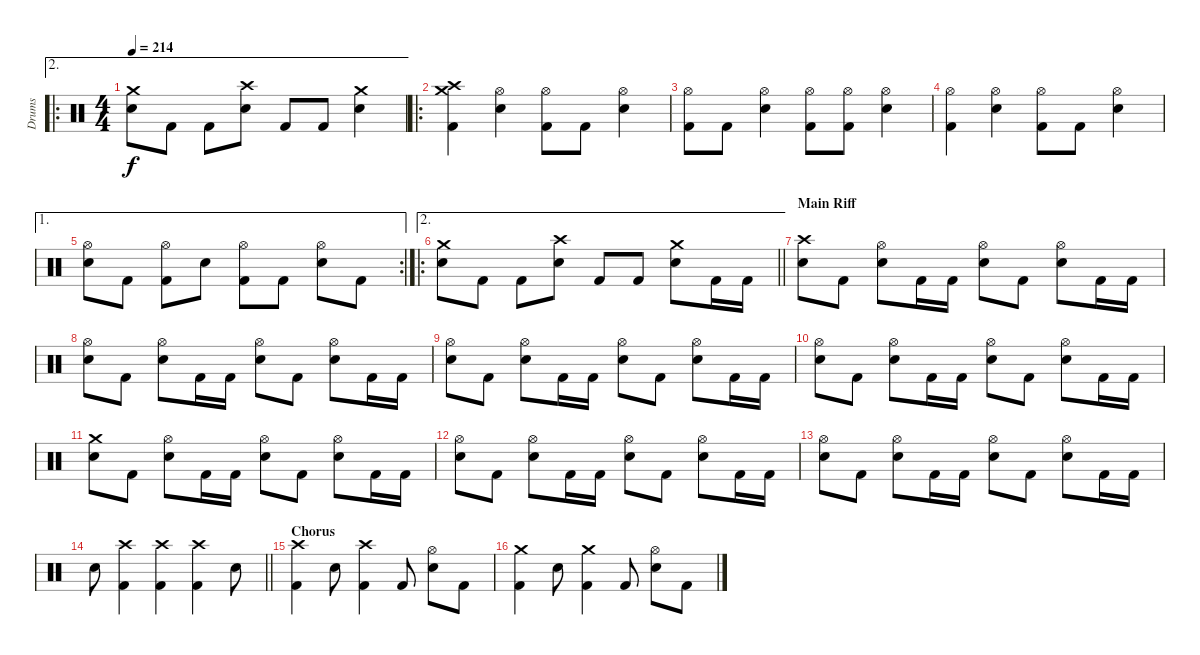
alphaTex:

\track ("Drums" "Drums") {instrument percussion}
\staff {score}
\articulation defaults
\ae 2
\ro
\ts (4 4)
\tempo 214
\clef neutral
\ks c
("Crash medium (hit)" "Electric Snare (hit)").8{dy f} "Kick (hit) 2".8 "Kick (hit) 2".8 ("Crash high (hit)" "Electric Snare (hit)").8 "Kick (hit) 2".8 "Kick (hit) 2".8 ("Crash medium (hit)" "Electric Snare (hit)").4 |
\ro
("Crash medium (hit)" "Crash high (hit)" "Kick (hit) 2").4 ("Hi-Hat (open)" "Electric Snare (hit)").4 ("Hi-Hat (open)" "Kick (hit) 2").8 "Kick (hit) 2".8 ("Hi-Hat (open)" "Electric Snare (hit)").4 |
("Hi-Hat (open)" "Kick (hit) 2").8 "Kick (hit) 2".8 ("Hi-Hat (open)" "Electric Snare (hit)").4 ("Hi-Hat (open)" "Kick (hit) 2").8 ("Hi-Hat (open)" "Kick (hit) 2").8 ("Hi-Hat (open)" "Electric Snare (hit)").4 |
("Hi-Hat (open)" "Kick (hit) 2").4 ("Hi-Hat (open)" "Electric Snare (hit)").4 ("Hi-Hat (open)" "Kick (hit) 2").8 "Kick (hit) 2".8 ("Hi-Hat (open)" "Electric Snare (hit)").4 |
\ae 1
\rc 2
("Hi-Hat (open)" "Electric Snare (hit)").8 "Kick (hit) 2".8 ("Hi-Hat (open)" "Kick (hit) 2").8 "Electric Snare (hit)".8 ("Hi-Hat (open)" "Kick (hit) 2").8 "Kick (hit) 2".8 ("Hi-Hat (open)" "Electric Snare (hit)").8 "Kick (hit) 2".8 |
\ae 2
\ro
\barLineRight lightlight
("Crash medium (hit)" "Electric Snare (hit)").8 "Kick (hit) 2".8 "Kick (hit) 2".8 ("Crash high (hit)" "Electric Snare (hit)").8 "Kick (hit) 2".8 "Kick (hit) 2".8 ("Crash medium (hit)" "Electric Snare (hit)").8 "Kick (hit) 2".16 "Kick (hit) 2".16 |
\section ("" "Main Riff")
("Crash high (hit)" "Electric Snare (hit)").8 "Kick (hit) 2".8 ("Hi-Hat (open)" "Electric Snare (hit)").8 "Kick (hit) 2".16 "Kick (hit) 2".16 ("Hi-Hat (open)" "Electric Snare (hit)").8 "Kick (hit) 2".8 ("Hi-Hat (open)" "Electric Snare (hit)").8 "Kick (hit) 2".16 "Kick (hit) 2".16 |
("Hi-Hat (open)" "Electric Snare (hit)").8 "Kick (hit) 2".8 ("Hi-Hat (open)" "Electric Snare (hit)").8 "Kick (hit) 2".16 "Kick (hit) 2".16 ("Hi-Hat (open)" "Electric Snare (hit)").8 "Kick (hit) 2".8 ("Hi-Hat (open)" "Electric Snare (hit)").8 "Kick (hit) 2".16 "Kick (hit) 2".16 |
("Hi-Hat (open)" "Electric Snare (hit)").8 "Kick (hit) 2".8 ("Hi-Hat (open)" "Electric Snare (hit)").8 "Kick (hit) 2".16 "Kick (hit) 2".16 ("Hi-Hat (open)" "Electric Snare (hit)").8 "Kick (hit) 2".8 ("Hi-Hat (open)" "Electric Snare (hit)").8 "Kick (hit) 2".16 "Kick (hit) 2".16 |
("Hi-Hat (open)" "Electric Snare (hit)").8 "Kick (hit) 2".8 ("Hi-Hat (open)" "Electric Snare (hit)").8 "Kick (hit) 2".16 "Kick (hit) 2".16 ("Hi-Hat (open)" "Electric Snare (hit)").8 "Kick (hit) 2".8 ("Hi-Hat (open)" "Electric Snare (hit)").8 "Kick (hit) 2".16 "Kick (hit) 2".16 |
("Crash medium (hit)" "Electric Snare (hit)").8 "Kick (hit) 2".8 ("Hi-Hat (open)" "Electric Snare (hit)").8 "Kick (hit) 2".16 "Kick (hit) 2".16 ("Hi-Hat (open)" "Electric Snare (hit)").8 "Kick (hit) 2".8 ("Hi-Hat (open)" "Electric Snare (hit)").8 "Kick (hit) 2".16 "Kick (hit) 2".16 |
("Hi-Hat (open)" "Electric Snare (hit)").8 "Kick (hit) 2".8 ("Hi-Hat (open)" "Electric Snare (hit)").8 "Kick (hit) 2".16 "Kick (hit) 2".16 ("Hi-Hat (open)" "Electric Snare (hit)").8 "Kick (hit) 2".8 ("Hi-Hat (open)" "Electric Snare (hit)").8 "Kick (hit) 2".16 "Kick (hit) 2".16 |
("Hi-Hat (open)" "Electric Snare (hit)").8 "Kick (hit) 2".8 ("Hi-Hat (open)" "Electric Snare (hit)").8 "Kick (hit) 2".16 "Kick (hit) 2".16 ("Hi-Hat (open)" "Electric Snare (hit)").8 "Kick (hit) 2".8 ("Hi-Hat (open)" "Electric Snare (hit)").8 "Kick (hit) 2".16 "Kick (hit) 2".16 |
\barLineRight lightlight "Electric Snare (hit)".8
("Crash high (hit)" "Kick (hit) 2").4 ("Crash high (hit)" "Kick (hit) 2").4 ("Crash high (hit)" "Kick (hit) 2").4 "Electric Snare (hit)".8 |
\section ("" "Chorus")
("Crash high (hit)" "Kick (hit) 2").4 "Electric Snare (hit)".8 ("Crash high (hit)" "Kick (hit) 2").4 "Kick (hit) 2".8 ("Hi-Hat (open)" "Electric Snare (hit)").8 "Kick (hit) 2".8 |
("Crash medium (hit)" "Kick (hit) 2").4 "Electric Snare (hit)".8 ("Crash medium (hit)" "Kick (hit) 2").4 "Kick (hit) 2".8 ("Hi-Hat (open)" "Electric Snare (hit)").8 "Kick (hit) 2".8
